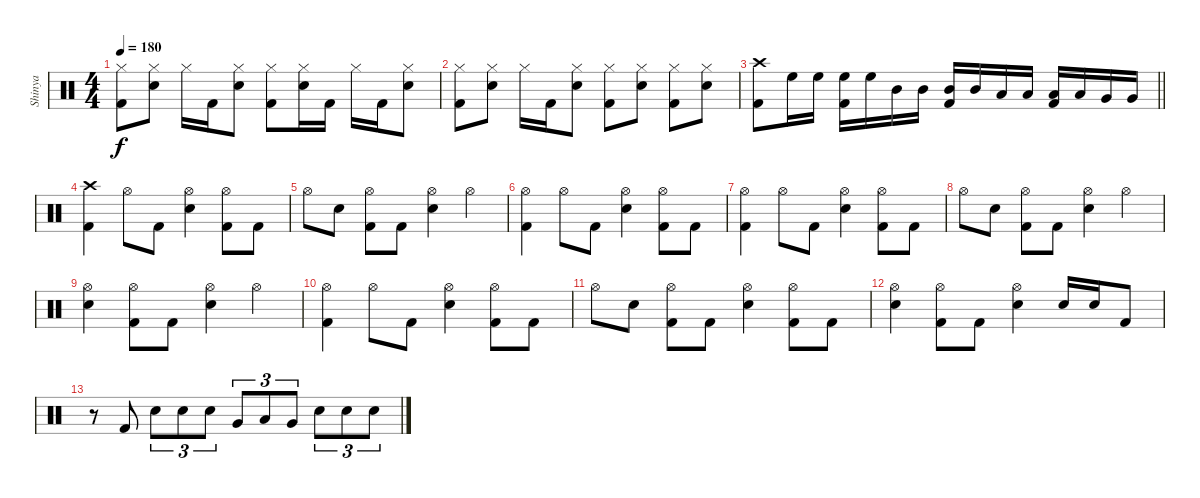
\track ("Shinya" "Shinya") {instrument percussion}
\staff {score}
\articulation defaults
\ts (4 4)
\tempo 180
\clef neutral
\ks c
("Hi-Hat (closed)" "Kick (hit) 2").8{dy f} ("Hi-Hat (closed)" "Electric Snare (hit)").8 "Hi-Hat (closed)".16 "Kick (hit) 2".16 ("Hi-Hat (closed)" "Electric Snare (hit)").8 ("Hi-Hat (closed)" "Kick (hit) 2").8 ("Hi-Hat (closed)" "Electric Snare (hit)").16 "Kick (hit) 2".16 "Hi-Hat (closed)".16 "Kick (hit) 2".16 ("Hi-Hat (closed)" "Electric Snare (hit)").8 |
("Hi-Hat (closed)" "Kick (hit) 2").8 ("Hi-Hat (closed)" "Electric Snare (hit)").8 "Hi-Hat (closed)".16 "Kick (hit) 2".16 ("Hi-Hat (closed)" "Electric Snare (hit)").8 ("Hi-Hat (closed)" "Kick (hit) 2").8 ("Hi-Hat (closed)" "Electric Snare (hit)").8 ("Hi-Hat (closed)" "Kick (hit) 2").8 ("Hi-Hat (closed)" "Electric Snare (hit)").8 |
\barLineRight lightlight
("Crash high (hit)" "Kick (hit) 2").8 "High Floor Tom (hit)".16 "High Floor Tom (hit)".16 ("High Floor Tom (hit)" "Kick (hit) 2").16 "High Floor Tom (hit)".16 "Mid Tom (hit)".16 "Mid Tom (hit)".16 ("Mid Tom (hit)" "Kick (hit) 2").16 "Mid Tom (hit)".16 "Low Tom (hit)".16 "Low Tom (hit)".16 ("Low Tom (hit)" "Kick (hit) 2").16 "Low Tom (hit)".16 "Very Low Tom (hit)".16 "Very Low Tom (hit)".16 |
("Crash high (hit)" "Kick (hit) 2").4 "Hi-Hat (open)".8 "Kick (hit) 2".8 ("Hi-Hat (open)" "Electric Snare (hit)").4 ("Hi-Hat (open)" "Kick (hit) 2").8 "Kick (hit) 2".8 |
"Hi-Hat (open)".8 "Electric Snare (hit)".8 ("Hi-Hat (open)" "Kick (hit) 2").8 "Kick (hit) 2".8 ("Hi-Hat (open)" "Electric Snare (hit)").4 "Hi-Hat (open)".4 |
("Hi-Hat (open)" "Kick (hit) 2").4 "Hi-Hat (open)".8 "Kick (hit) 2".8 ("Hi-Hat (open)" "Electric Snare (hit)").4 ("Hi-Hat (open)" "Kick (hit) 2").8 "Kick (hit) 2".8 |
("Hi-Hat (open)" "Kick (hit) 2").4 "Hi-Hat (open)".8 "Kick (hit) 2".8 ("Hi-Hat (open)" "Electric Snare (hit)").4 ("Hi-Hat (open)" "Kick (hit) 2").8 "Kick (hit) 2".8 |
"Hi-Hat (open)".8 "Electric Snare (hit)".8 ("Hi-Hat (open)" "Kick (hit) 2").8 "Kick (hit) 2".8 ("Hi-Hat (open)" "Electric Snare (hit)").4 "Hi-Hat (open)".4 |
("Hi-Hat (open)" "Electric Snare (hit)").4 ("Hi-Hat (open)" "Kick (hit) 2").8 "Kick (hit) 2".8 ("Hi-Hat (open)" "Electric Snare (hit)").4 "Hi-Hat (open)".4 |
("Hi-Hat (open)" "Kick (hit) 2").4 "Hi-Hat (open)".8 "Kick (hit) 2".8 ("Hi-Hat (open)" "Electric Snare (hit)").4 ("Hi-Hat (open)" "Kick (hit) 2").8 "Kick (hit) 2".8 |
"Hi-Hat (open)".8 "Electric Snare (hit)".8 ("Hi-Hat (open)" "Kick (hit) 2").8 "Kick (hit) 2".8 ("Hi-Hat (open)" "Electric Snare (hit)").4 ("Hi-Hat (open)" "Kick (hit) 2").8 "Kick (hit) 2".8 |
("Hi-Hat (open)" "Electric Snare (hit)").4 ("Hi-Hat (open)" "Kick (hit) 2").8 "Kick (hit) 2".8 ("Hi-Hat (open)" "Electric Snare (hit)").4 "Electric Snare (hit)".16 "Electric Snare (hit)".16 "Kick (hit) 2".8 |
r.8 "Kick (hit) 2".8 "Electric Snare (hit)".8{tu (3 2)} "Electric Snare (hit)".8{tu (3 2)} "Electric Snare (hit)".8{tu (3 2)} "Very Low Tom (hit)".8{tu (3 2)} "Low Tom (hit)".8{tu (3 2)} "Very Low Tom (hit)".8{tu (3 2)} "Electric Snare (hit)".8{tu (3 2)} "Electric Snare (hit)".8{tu (3 2)} "Electric Snare (hit)".8{tu (3 2)}
